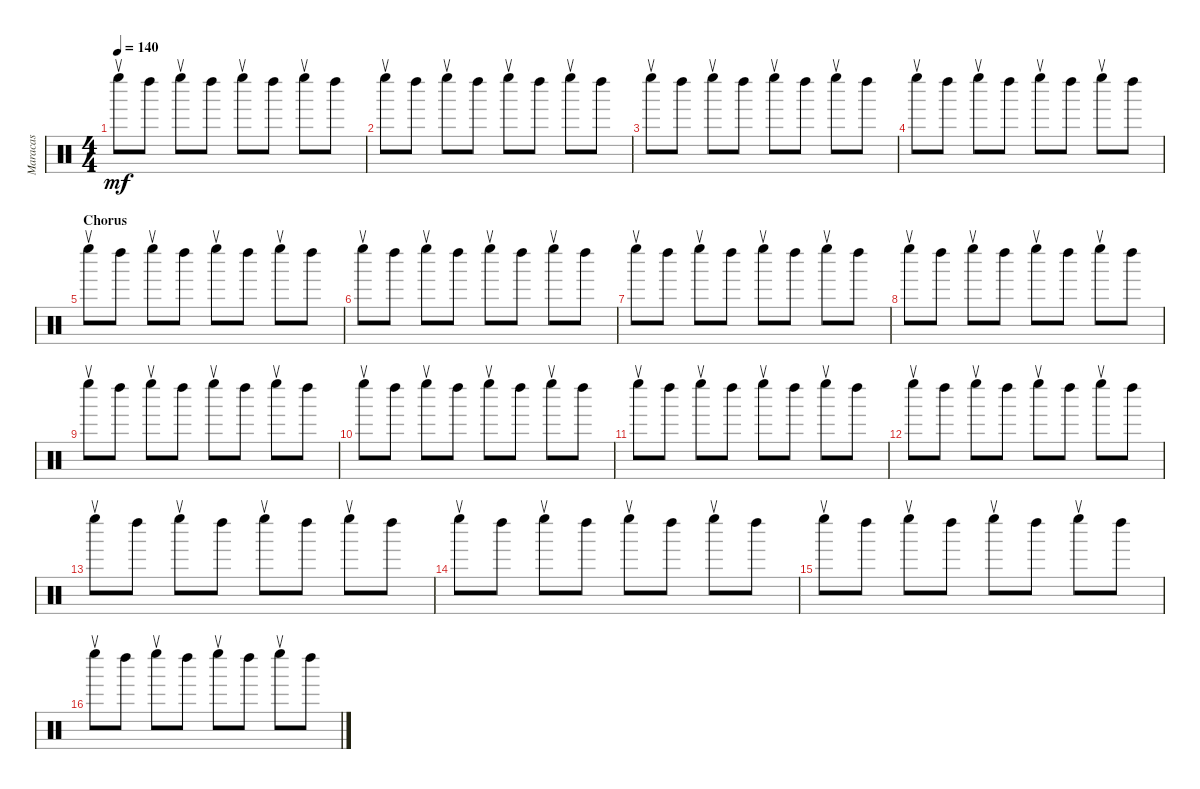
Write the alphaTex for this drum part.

\track ("Maracas" "Maracas") {instrument percussion}
\staff {score}
\articulation defaults
\ts (4 4)
\tempo 140
\clef neutral
\ks c "Left Maraca (return)".8{dy mf} "Left Maraca (hit)".8 "Left Maraca (return)".8 "Left Maraca (hit)".8 "Left Maraca (return)".8 "Left Maraca (hit)".8 "Left Maraca (return)".8 "Left Maraca (hit)".8
|
"Left Maraca (return)".8 "Left Maraca (hit)".8 "Left Maraca (return)".8 "Left Maraca (hit)".8 "Left Maraca (return)".8 "Left Maraca (hit)".8 "Left Maraca (return)".8 "Left Maraca (hit)".8 |
"Left Maraca (return)".8 "Left Maraca (hit)".8 "Left Maraca (return)".8 "Left Maraca (hit)".8 "Left Maraca (return)".8 "Left Maraca (hit)".8 "Left Maraca (return)".8 "Left Maraca (hit)".8 |
"Left Maraca (return)".8 "Left Maraca (hit)".8 "Left Maraca (return)".8 "Left Maraca (hit)".8 "Left Maraca (return)".8 "Left Maraca (hit)".8 "Left Maraca (return)".8 "Left Maraca (hit)".8 |
\section ("" "Chorus")
"Left Maraca (return)".8 "Left Maraca (hit)".8 "Left Maraca (return)".8 "Left Maraca (hit)".8 "Left Maraca (return)".8 "Left Maraca (hit)".8 "Left Maraca (return)".8 "Left Maraca (hit)".8 |
"Left Maraca (return)".8 "Left Maraca (hit)".8 "Left Maraca (return)".8 "Left Maraca (hit)".8 "Left Maraca (return)".8 "Left Maraca (hit)".8 "Left Maraca (return)".8 "Left Maraca (hit)".8 |
"Left Maraca (return)".8 "Left Maraca (hit)".8 "Left Maraca (return)".8 "Left Maraca (hit)".8 "Left Maraca (return)".8 "Left Maraca (hit)".8 "Left Maraca (return)".8 "Left Maraca (hit)".8 |
"Left Maraca (return)".8 "Left Maraca (hit)".8 "Left Maraca (return)".8 "Left Maraca (hit)".8 "Left Maraca (return)".8 "Left Maraca (hit)".8 "Left Maraca (return)".8 "Left Maraca (hit)".8 |
"Left Maraca (return)".8 "Left Maraca (hit)".8 "Left Maraca (return)".8 "Left Maraca (hit)".8 "Left Maraca (return)".8 "Left Maraca (hit)".8 "Left Maraca (return)".8 "Left Maraca (hit)".8 |
"Left Maraca (return)".8 "Left Maraca (hit)".8 "Left Maraca (return)".8 "Left Maraca (hit)".8 "Left Maraca (return)".8 "Left Maraca (hit)".8 "Left Maraca (return)".8 "Left Maraca (hit)".8 |
"Left Maraca (return)".8 "Left Maraca (hit)".8 "Left Maraca (return)".8 "Left Maraca (hit)".8 "Left Maraca (return)".8 "Left Maraca (hit)".8 "Left Maraca (return)".8 "Left Maraca (hit)".8 |
"Left Maraca (return)".8 "Left Maraca (hit)".8 "Left Maraca (return)".8 "Left Maraca (hit)".8 "Left Maraca (return)".8 "Left Maraca (hit)".8 "Left Maraca (return)".8 "Left Maraca (hit)".8 |
"Left Maraca (return)".8 "Left Maraca (hit)".8 "Left Maraca (return)".8 "Left Maraca (hit)".8 "Left Maraca (return)".8 "Left Maraca (hit)".8 "Left Maraca (return)".8 "Left Maraca (hit)".8 |
"Left Maraca (return)".8 "Left Maraca (hit)".8 "Left Maraca (return)".8 "Left Maraca (hit)".8 "Left Maraca (return)".8 "Left Maraca (hit)".8 "Left Maraca (return)".8 "Left Maraca (hit)".8 |
"Left Maraca (return)".8 "Left Maraca (hit)".8 "Left Maraca (return)".8 "Left Maraca (hit)".8 "Left Maraca (return)".8 "Left Maraca (hit)".8 "Left Maraca (return)".8 "Left Maraca (hit)".8 |
"Left Maraca (return)".8 "Left Maraca (hit)".8 "Left Maraca (return)".8 "Left Maraca (hit)".8 "Left Maraca (return)".8 "Left Maraca (hit)".8 "Left Maraca (return)".8 "Left Maraca (hit)".8
